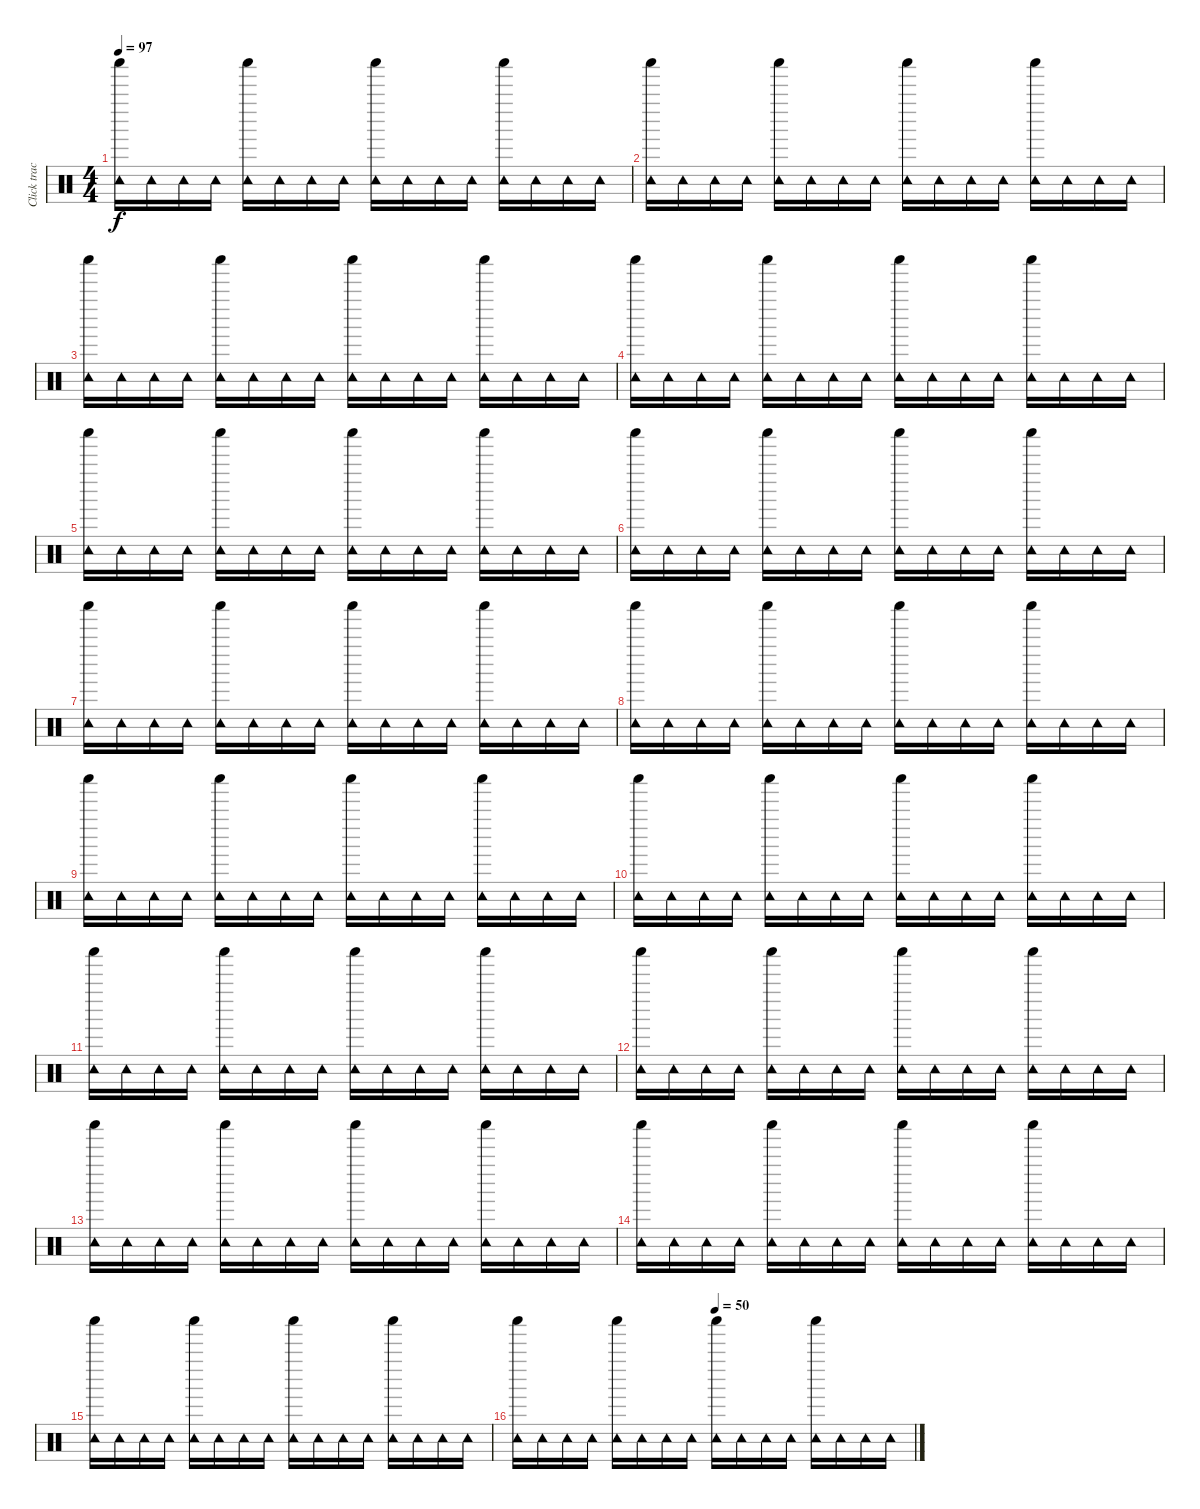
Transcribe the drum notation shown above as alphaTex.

\track ("Click track" "Click trac") {instrument percussion}
\staff {score}
\articulation defaults
\ts (4 4)
\tempo 97
\clef neutral
\ks c
("Shaker (hit)" "Tambourine (hit)").16{dy f} "Tambourine (hit)".16 "Tambourine (hit)".16 "Tambourine (hit)".16 ("Shaker (hit)" "Tambourine (hit)").16 "Tambourine (hit)".16 "Tambourine (hit)".16 "Tambourine (hit)".16 ("Shaker (hit)" "Tambourine (hit)").16 "Tambourine (hit)".16 "Tambourine (hit)".16 "Tambourine (hit)".16 ("Shaker (hit)" "Tambourine (hit)").16 "Tambourine (hit)".16 "Tambourine (hit)".16 "Tambourine (hit)".16 |
("Shaker (hit)" "Tambourine (hit)").16 "Tambourine (hit)".16 "Tambourine (hit)".16 "Tambourine (hit)".16 ("Shaker (hit)" "Tambourine (hit)").16 "Tambourine (hit)".16 "Tambourine (hit)".16 "Tambourine (hit)".16 ("Shaker (hit)" "Tambourine (hit)").16 "Tambourine (hit)".16 "Tambourine (hit)".16 "Tambourine (hit)".16 ("Shaker (hit)" "Tambourine (hit)").16 "Tambourine (hit)".16 "Tambourine (hit)".16 "Tambourine (hit)".16 |
("Shaker (hit)" "Tambourine (hit)").16 "Tambourine (hit)".16 "Tambourine (hit)".16 "Tambourine (hit)".16 ("Shaker (hit)" "Tambourine (hit)").16 "Tambourine (hit)".16 "Tambourine (hit)".16 "Tambourine (hit)".16 ("Shaker (hit)" "Tambourine (hit)").16 "Tambourine (hit)".16 "Tambourine (hit)".16 "Tambourine (hit)".16 ("Shaker (hit)" "Tambourine (hit)").16 "Tambourine (hit)".16 "Tambourine (hit)".16 "Tambourine (hit)".16 |
("Shaker (hit)" "Tambourine (hit)").16 "Tambourine (hit)".16 "Tambourine (hit)".16 "Tambourine (hit)".16 ("Shaker (hit)" "Tambourine (hit)").16 "Tambourine (hit)".16 "Tambourine (hit)".16 "Tambourine (hit)".16 ("Shaker (hit)" "Tambourine (hit)").16 "Tambourine (hit)".16 "Tambourine (hit)".16 "Tambourine (hit)".16 ("Shaker (hit)" "Tambourine (hit)").16 "Tambourine (hit)".16 "Tambourine (hit)".16 "Tambourine (hit)".16 |
("Shaker (hit)" "Tambourine (hit)").16 "Tambourine (hit)".16 "Tambourine (hit)".16 "Tambourine (hit)".16 ("Shaker (hit)" "Tambourine (hit)").16 "Tambourine (hit)".16 "Tambourine (hit)".16 "Tambourine (hit)".16 ("Shaker (hit)" "Tambourine (hit)").16 "Tambourine (hit)".16 "Tambourine (hit)".16 "Tambourine (hit)".16 ("Shaker (hit)" "Tambourine (hit)").16 "Tambourine (hit)".16 "Tambourine (hit)".16 "Tambourine (hit)".16 |
("Shaker (hit)" "Tambourine (hit)").16 "Tambourine (hit)".16 "Tambourine (hit)".16 "Tambourine (hit)".16 ("Shaker (hit)" "Tambourine (hit)").16 "Tambourine (hit)".16 "Tambourine (hit)".16 "Tambourine (hit)".16 ("Shaker (hit)" "Tambourine (hit)").16 "Tambourine (hit)".16 "Tambourine (hit)".16 "Tambourine (hit)".16 ("Shaker (hit)" "Tambourine (hit)").16 "Tambourine (hit)".16 "Tambourine (hit)".16 "Tambourine (hit)".16 |
("Shaker (hit)" "Tambourine (hit)").16 "Tambourine (hit)".16 "Tambourine (hit)".16 "Tambourine (hit)".16 ("Shaker (hit)" "Tambourine (hit)").16 "Tambourine (hit)".16 "Tambourine (hit)".16 "Tambourine (hit)".16 ("Shaker (hit)" "Tambourine (hit)").16 "Tambourine (hit)".16 "Tambourine (hit)".16 "Tambourine (hit)".16 ("Shaker (hit)" "Tambourine (hit)").16 "Tambourine (hit)".16 "Tambourine (hit)".16 "Tambourine (hit)".16 |
("Shaker (hit)" "Tambourine (hit)").16 "Tambourine (hit)".16 "Tambourine (hit)".16 "Tambourine (hit)".16 ("Shaker (hit)" "Tambourine (hit)").16 "Tambourine (hit)".16 "Tambourine (hit)".16 "Tambourine (hit)".16 ("Shaker (hit)" "Tambourine (hit)").16 "Tambourine (hit)".16 "Tambourine (hit)".16 "Tambourine (hit)".16 ("Shaker (hit)" "Tambourine (hit)").16 "Tambourine (hit)".16 "Tambourine (hit)".16 "Tambourine (hit)".16 |
("Shaker (hit)" "Tambourine (hit)").16 "Tambourine (hit)".16 "Tambourine (hit)".16 "Tambourine (hit)".16 ("Shaker (hit)" "Tambourine (hit)").16 "Tambourine (hit)".16 "Tambourine (hit)".16 "Tambourine (hit)".16 ("Shaker (hit)" "Tambourine (hit)").16 "Tambourine (hit)".16 "Tambourine (hit)".16 "Tambourine (hit)".16 ("Shaker (hit)" "Tambourine (hit)").16 "Tambourine (hit)".16 "Tambourine (hit)".16 "Tambourine (hit)".16 |
("Shaker (hit)" "Tambourine (hit)").16 "Tambourine (hit)".16 "Tambourine (hit)".16 "Tambourine (hit)".16 ("Shaker (hit)" "Tambourine (hit)").16 "Tambourine (hit)".16 "Tambourine (hit)".16 "Tambourine (hit)".16 ("Shaker (hit)" "Tambourine (hit)").16 "Tambourine (hit)".16 "Tambourine (hit)".16 "Tambourine (hit)".16 ("Shaker (hit)" "Tambourine (hit)").16 "Tambourine (hit)".16 "Tambourine (hit)".16 "Tambourine (hit)".16 |
("Shaker (hit)" "Tambourine (hit)").16 "Tambourine (hit)".16 "Tambourine (hit)".16 "Tambourine (hit)".16 ("Shaker (hit)" "Tambourine (hit)").16 "Tambourine (hit)".16 "Tambourine (hit)".16 "Tambourine (hit)".16 ("Shaker (hit)" "Tambourine (hit)").16 "Tambourine (hit)".16 "Tambourine (hit)".16 "Tambourine (hit)".16 ("Shaker (hit)" "Tambourine (hit)").16 "Tambourine (hit)".16 "Tambourine (hit)".16 "Tambourine (hit)".16 |
("Shaker (hit)" "Tambourine (hit)").16 "Tambourine (hit)".16 "Tambourine (hit)".16 "Tambourine (hit)".16 ("Shaker (hit)" "Tambourine (hit)").16 "Tambourine (hit)".16 "Tambourine (hit)".16 "Tambourine (hit)".16 ("Shaker (hit)" "Tambourine (hit)").16 "Tambourine (hit)".16 "Tambourine (hit)".16 "Tambourine (hit)".16 ("Shaker (hit)" "Tambourine (hit)").16 "Tambourine (hit)".16 "Tambourine (hit)".16 "Tambourine (hit)".16 |
("Shaker (hit)" "Tambourine (hit)").16 "Tambourine (hit)".16 "Tambourine (hit)".16 "Tambourine (hit)".16 ("Shaker (hit)" "Tambourine (hit)").16 "Tambourine (hit)".16 "Tambourine (hit)".16 "Tambourine (hit)".16 ("Shaker (hit)" "Tambourine (hit)").16 "Tambourine (hit)".16 "Tambourine (hit)".16 "Tambourine (hit)".16 ("Shaker (hit)" "Tambourine (hit)").16 "Tambourine (hit)".16 "Tambourine (hit)".16 "Tambourine (hit)".16 |
("Shaker (hit)" "Tambourine (hit)").16 "Tambourine (hit)".16 "Tambourine (hit)".16 "Tambourine (hit)".16 ("Shaker (hit)" "Tambourine (hit)").16 "Tambourine (hit)".16 "Tambourine (hit)".16 "Tambourine (hit)".16 ("Shaker (hit)" "Tambourine (hit)").16 "Tambourine (hit)".16 "Tambourine (hit)".16 "Tambourine (hit)".16 ("Shaker (hit)" "Tambourine (hit)").16 "Tambourine (hit)".16 "Tambourine (hit)".16 "Tambourine (hit)".16 |
("Shaker (hit)" "Tambourine (hit)").16 "Tambourine (hit)".16 "Tambourine (hit)".16 "Tambourine (hit)".16 ("Shaker (hit)" "Tambourine (hit)").16 "Tambourine (hit)".16 "Tambourine (hit)".16 "Tambourine (hit)".16 ("Shaker (hit)" "Tambourine (hit)").16 "Tambourine (hit)".16 "Tambourine (hit)".16 "Tambourine (hit)".16 ("Shaker (hit)" "Tambourine (hit)").16 "Tambourine (hit)".16 "Tambourine (hit)".16 "Tambourine (hit)".16 |
\tempo (50 0.5)
("Shaker (hit)" "Tambourine (hit)").16 "Tambourine (hit)".16 "Tambourine (hit)".16 "Tambourine (hit)".16 ("Shaker (hit)" "Tambourine (hit)").16 "Tambourine (hit)".16 "Tambourine (hit)".16 "Tambourine (hit)".16 ("Shaker (hit)" "Tambourine (hit)").16 "Tambourine (hit)".16 "Tambourine (hit)".16 "Tambourine (hit)".16 ("Shaker (hit)" "Tambourine (hit)").16 "Tambourine (hit)".16 "Tambourine (hit)".16 "Tambourine (hit)".16
